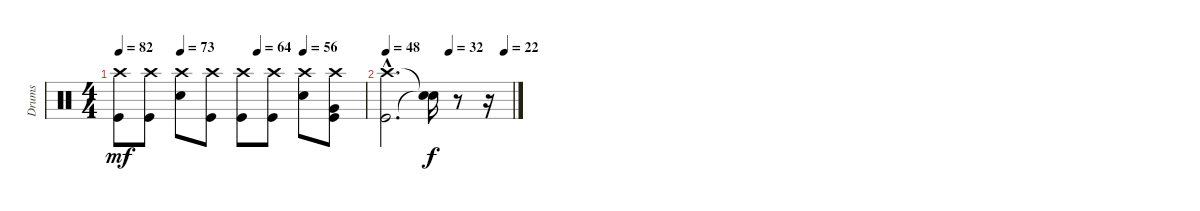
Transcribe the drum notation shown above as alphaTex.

\track ("Drums" "Drums") {instrument percussion}
\staff {score}
\articulation defaults
\ts (4 4)
\tempo 82
\tempo (73 0.25)
\tempo (64 0.5625)
\tempo (56 0.75)
\clef neutral
\ks c
("Crash high (hit)" "Kick (hit)").8{dy mf} ("Crash high (hit)" "Kick (hit)").8 ("Crash high (hit)" "Electric Snare (hit)").8 ("Kick (hit)" "Crash high (hit)").8 ("Kick (hit)" "Crash high (hit)").8 ("Crash high (hit)" "Kick (hit)").8 ("Electric Snare (hit)" "Crash high (hit)").8 ("Crash high (hit)" "Very Low Tom (hit)" "Kick (hit)").8 |
\tempo 48
\tempo (32 0.5)
\tempo (22 0.9375)
("Crash high (hit)"{hac} "Kick (hit)"{hac}).2{d} ("Snare (hit)"{t} "Snare (hit)"{t}).16{dy f} r.8 r.16
